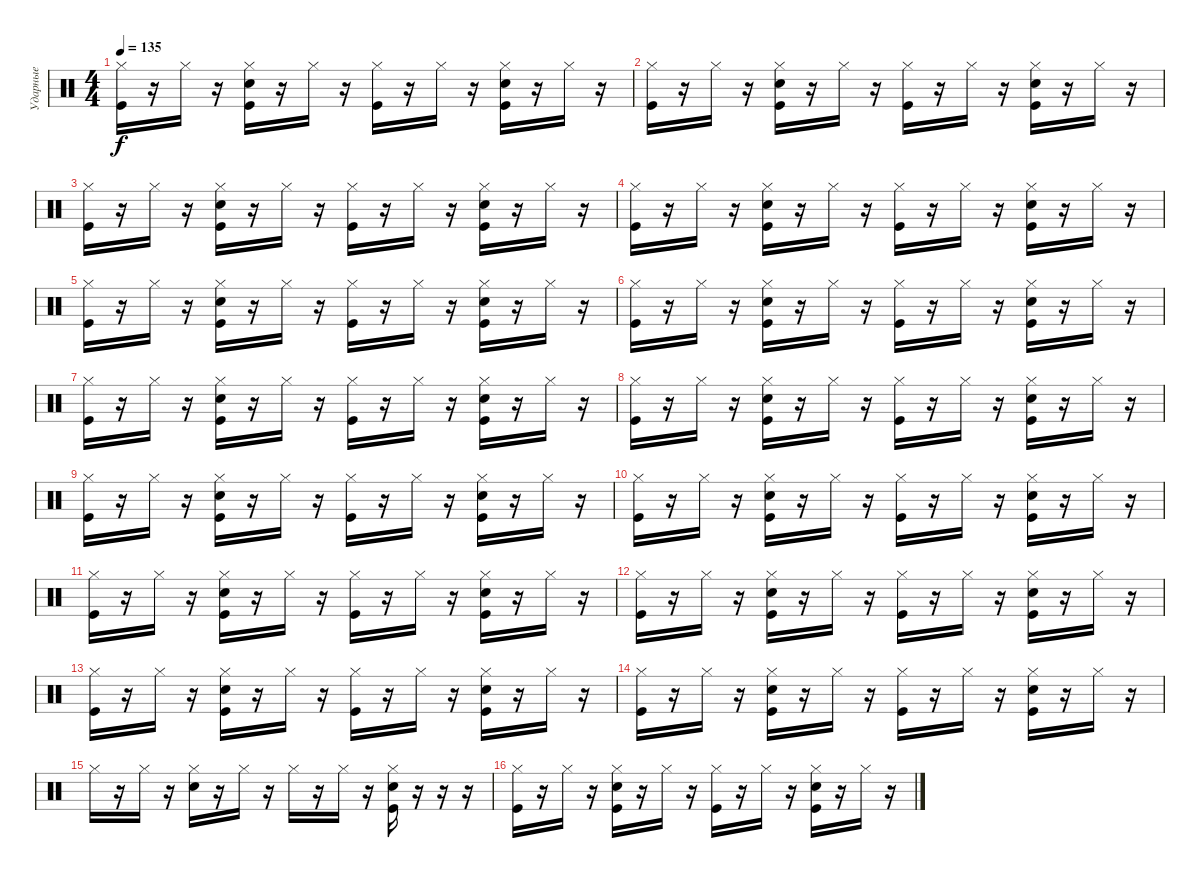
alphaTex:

\track ("Ударные" "Ударные") {instrument percussion}
\staff {score}
\articulation defaults
\ts (4 4)
\tempo 135
\clef neutral
\ks c
("Hi-Hat (closed)" "Kick (hit)").16{dy f} r.16 "Hi-Hat (closed)".16 r.16 ("Hi-Hat (closed)" "Kick (hit)" "Snare (hit) 2").16 r.16 "Hi-Hat (closed)".16 r.16 ("Hi-Hat (closed)" "Kick (hit)").16 r.16 "Hi-Hat (closed)".16 r.16 ("Hi-Hat (closed)" "Snare (hit) 2" "Kick (hit)").16 r.16 "Hi-Hat (closed)".16 r.16 |
("Hi-Hat (closed)" "Kick (hit)").16 r.16 "Hi-Hat (closed)".16 r.16 ("Hi-Hat (closed)" "Kick (hit)" "Snare (hit) 2").16 r.16 "Hi-Hat (closed)".16 r.16 ("Hi-Hat (closed)" "Kick (hit)").16 r.16 "Hi-Hat (closed)".16 r.16 ("Hi-Hat (closed)" "Snare (hit) 2" "Kick (hit)").16 r.16 "Hi-Hat (closed)".16 r.16 |
("Hi-Hat (closed)" "Kick (hit)").16 r.16 "Hi-Hat (closed)".16 r.16 ("Hi-Hat (closed)" "Kick (hit)" "Snare (hit) 2").16 r.16 "Hi-Hat (closed)".16 r.16 ("Hi-Hat (closed)" "Kick (hit)").16 r.16 "Hi-Hat (closed)".16 r.16 ("Hi-Hat (closed)" "Snare (hit) 2" "Kick (hit)").16 r.16 "Hi-Hat (closed)".16 r.16 |
("Hi-Hat (closed)" "Kick (hit)").16 r.16 "Hi-Hat (closed)".16 r.16 ("Hi-Hat (closed)" "Kick (hit)" "Snare (hit) 2").16 r.16 "Hi-Hat (closed)".16 r.16 ("Hi-Hat (closed)" "Kick (hit)").16 r.16 "Hi-Hat (closed)".16 r.16 ("Hi-Hat (closed)" "Snare (hit) 2" "Kick (hit)").16 r.16 "Hi-Hat (closed)".16 r.16 |
("Hi-Hat (closed)" "Kick (hit)").16 r.16 "Hi-Hat (closed)".16 r.16 ("Hi-Hat (closed)" "Kick (hit)" "Snare (hit) 2").16 r.16 "Hi-Hat (closed)".16 r.16 ("Hi-Hat (closed)" "Kick (hit)").16 r.16 "Hi-Hat (closed)".16 r.16 ("Hi-Hat (closed)" "Snare (hit) 2" "Kick (hit)").16 r.16 "Hi-Hat (closed)".16 r.16 |
("Hi-Hat (closed)" "Kick (hit)").16 r.16 "Hi-Hat (closed)".16 r.16 ("Hi-Hat (closed)" "Kick (hit)" "Snare (hit) 2").16 r.16 "Hi-Hat (closed)".16 r.16 ("Hi-Hat (closed)" "Kick (hit)").16 r.16 "Hi-Hat (closed)".16 r.16 ("Hi-Hat (closed)" "Snare (hit) 2" "Kick (hit)").16 r.16 "Hi-Hat (closed)".16 r.16 |
("Hi-Hat (closed)" "Kick (hit)").16 r.16 "Hi-Hat (closed)".16 r.16 ("Hi-Hat (closed)" "Kick (hit)" "Snare (hit) 2").16 r.16 "Hi-Hat (closed)".16 r.16 ("Hi-Hat (closed)" "Kick (hit)").16 r.16 "Hi-Hat (closed)".16 r.16 ("Hi-Hat (closed)" "Snare (hit) 2" "Kick (hit)").16 r.16 "Hi-Hat (closed)".16 r.16 |
("Hi-Hat (closed)" "Kick (hit)").16 r.16 "Hi-Hat (closed)".16 r.16 ("Hi-Hat (closed)" "Kick (hit)" "Snare (hit) 2").16 r.16 "Hi-Hat (closed)".16 r.16 ("Hi-Hat (closed)" "Kick (hit)").16 r.16 "Hi-Hat (closed)".16 r.16 ("Hi-Hat (closed)" "Snare (hit) 2" "Kick (hit)").16 r.16 "Hi-Hat (closed)".16 r.16 |
("Hi-Hat (closed)" "Kick (hit)").16 r.16 "Hi-Hat (closed)".16 r.16 ("Hi-Hat (closed)" "Kick (hit)" "Snare (hit) 2").16 r.16 "Hi-Hat (closed)".16 r.16 ("Hi-Hat (closed)" "Kick (hit)").16 r.16 "Hi-Hat (closed)".16 r.16 ("Hi-Hat (closed)" "Snare (hit) 2" "Kick (hit)").16 r.16 "Hi-Hat (closed)".16 r.16 |
("Hi-Hat (closed)" "Kick (hit)").16 r.16 "Hi-Hat (closed)".16 r.16 ("Hi-Hat (closed)" "Kick (hit)" "Snare (hit) 2").16 r.16 "Hi-Hat (closed)".16 r.16 ("Hi-Hat (closed)" "Kick (hit)").16 r.16 "Hi-Hat (closed)".16 r.16 ("Hi-Hat (closed)" "Snare (hit) 2" "Kick (hit)").16 r.16 "Hi-Hat (closed)".16 r.16 |
("Hi-Hat (closed)" "Kick (hit)").16 r.16 "Hi-Hat (closed)".16 r.16 ("Hi-Hat (closed)" "Kick (hit)" "Snare (hit) 2").16 r.16 "Hi-Hat (closed)".16 r.16 ("Hi-Hat (closed)" "Kick (hit)").16 r.16 "Hi-Hat (closed)".16 r.16 ("Hi-Hat (closed)" "Snare (hit) 2" "Kick (hit)").16 r.16 "Hi-Hat (closed)".16 r.16 |
("Hi-Hat (closed)" "Kick (hit)").16 r.16 "Hi-Hat (closed)".16 r.16 ("Hi-Hat (closed)" "Kick (hit)" "Snare (hit) 2").16 r.16 "Hi-Hat (closed)".16 r.16 ("Hi-Hat (closed)" "Kick (hit)").16 r.16 "Hi-Hat (closed)".16 r.16 ("Hi-Hat (closed)" "Snare (hit) 2" "Kick (hit)").16 r.16 "Hi-Hat (closed)".16 r.16 |
("Hi-Hat (closed)" "Kick (hit)").16 r.16 "Hi-Hat (closed)".16 r.16 ("Hi-Hat (closed)" "Kick (hit)" "Snare (hit) 2").16 r.16 "Hi-Hat (closed)".16 r.16 ("Hi-Hat (closed)" "Kick (hit)").16 r.16 "Hi-Hat (closed)".16 r.16 ("Hi-Hat (closed)" "Snare (hit) 2" "Kick (hit)").16 r.16 "Hi-Hat (closed)".16 r.16 |
("Hi-Hat (closed)" "Kick (hit)").16 r.16 "Hi-Hat (closed)".16 r.16 ("Hi-Hat (closed)" "Kick (hit)" "Snare (hit) 2").16 r.16 "Hi-Hat (closed)".16 r.16 ("Hi-Hat (closed)" "Kick (hit)").16 r.16 "Hi-Hat (closed)".16 r.16 ("Hi-Hat (closed)" "Snare (hit) 2" "Kick (hit)").16 r.16 "Hi-Hat (closed)".16 r.16 |
"Hi-Hat (closed)".16 r.16 "Hi-Hat (closed)".16 r.16 ("Hi-Hat (closed)" "Snare (hit) 2").16 r.16 "Hi-Hat (closed)".16 r.16 "Hi-Hat (closed)".16 r.16 "Hi-Hat (closed)".16 r.16 ("Hi-Hat (closed)" "Snare (hit) 2" "Kick (hit)").16 r.16 r.16 r.16 |
("Hi-Hat (closed)" "Kick (hit)").16 r.16 "Hi-Hat (closed)".16 r.16 ("Hi-Hat (closed)" "Kick (hit)" "Snare (hit) 2").16 r.16 "Hi-Hat (closed)".16 r.16 ("Hi-Hat (closed)" "Kick (hit)").16 r.16 "Hi-Hat (closed)".16 r.16 ("Hi-Hat (closed)" "Snare (hit) 2" "Kick (hit)").16 r.16 "Hi-Hat (closed)".16 r.16
